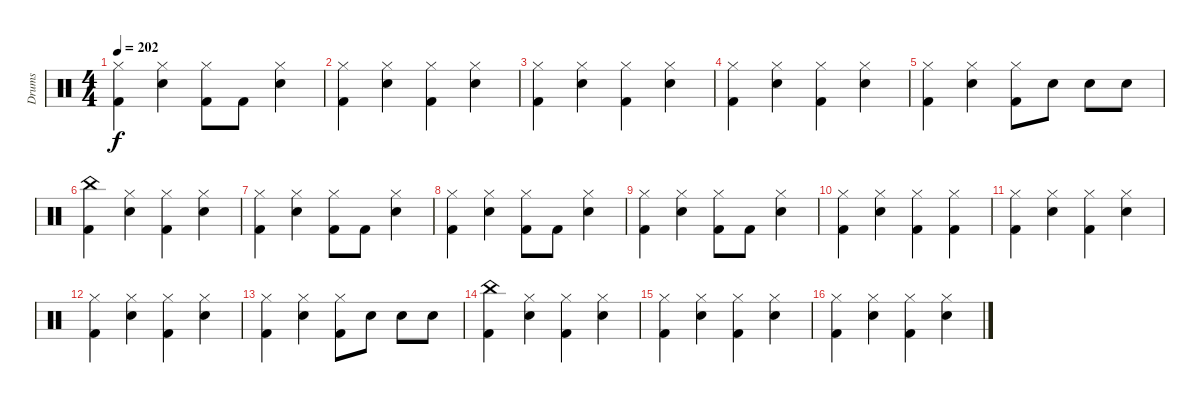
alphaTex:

\track ("Drums" "Drums") {instrument percussion}
\staff {score}
\articulation defaults
\ts (4 4)
\tempo 202
\clef neutral
\ks c
("Hi-Hat (closed)" "Kick (hit) 2").4{dy f} ("Hi-Hat (closed)" "Snare (hit) 2").4 ("Hi-Hat (closed)" "Kick (hit) 2").8 "Kick (hit) 2".8 ("Hi-Hat (closed)" "Snare (hit) 2").4 |
("Hi-Hat (closed)" "Kick (hit) 2").4 ("Hi-Hat (closed)" "Snare (hit) 2").4 ("Hi-Hat (closed)" "Kick (hit) 2").4 ("Hi-Hat (closed)" "Snare (hit) 2").4 |
("Hi-Hat (closed)" "Kick (hit) 2").4 ("Hi-Hat (closed)" "Snare (hit) 2").4 ("Hi-Hat (closed)" "Kick (hit) 2").4 ("Hi-Hat (closed)" "Snare (hit) 2").4 |
("Hi-Hat (closed)" "Kick (hit) 2").4 ("Hi-Hat (closed)" "Snare (hit) 2").4 ("Hi-Hat (closed)" "Kick (hit) 2").4 ("Hi-Hat (closed)" "Snare (hit) 2").4 |
("Hi-Hat (closed)" "Kick (hit) 2").4 ("Hi-Hat (closed)" "Snare (hit) 2").4 ("Hi-Hat (closed)" "Kick (hit) 2").8 "Snare (hit) 2".8 "Snare (hit) 2".8 "Snare (hit) 2".8 |
("China (hit)" "Kick (hit) 2").4 ("Hi-Hat (closed)" "Snare (hit) 2").4 ("Hi-Hat (closed)" "Kick (hit) 2").4 ("Hi-Hat (closed)" "Snare (hit) 2").4 |
("Hi-Hat (closed)" "Kick (hit) 2").4 ("Hi-Hat (closed)" "Snare (hit) 2").4 ("Hi-Hat (closed)" "Kick (hit) 2").8 "Kick (hit) 2".8 ("Hi-Hat (closed)" "Snare (hit) 2").4 |
("Hi-Hat (closed)" "Kick (hit) 2").4 ("Hi-Hat (closed)" "Snare (hit) 2").4 ("Hi-Hat (closed)" "Kick (hit) 2").8 "Kick (hit) 2".8 ("Hi-Hat (closed)" "Snare (hit) 2").4 |
("Hi-Hat (closed)" "Kick (hit) 2").4 ("Hi-Hat (closed)" "Snare (hit) 2").4 ("Hi-Hat (closed)" "Kick (hit) 2").8 "Kick (hit) 2".8 ("Hi-Hat (closed)" "Snare (hit) 2").4 |
("Hi-Hat (closed)" "Kick (hit) 2").4 ("Hi-Hat (closed)" "Snare (hit) 2").4 ("Hi-Hat (closed)" "Kick (hit) 2").4 ("Hi-Hat (closed)" "Kick (hit) 2").4 |
("Hi-Hat (closed)" "Kick (hit) 2").4 ("Hi-Hat (closed)" "Snare (hit) 2").4 ("Hi-Hat (closed)" "Kick (hit) 2").4 ("Hi-Hat (closed)" "Snare (hit) 2").4 |
("Hi-Hat (closed)" "Kick (hit) 2").4 ("Hi-Hat (closed)" "Snare (hit) 2").4 ("Hi-Hat (closed)" "Kick (hit) 2").4 ("Hi-Hat (closed)" "Snare (hit) 2").4 |
("Hi-Hat (closed)" "Kick (hit) 2").4 ("Hi-Hat (closed)" "Snare (hit) 2").4 ("Hi-Hat (closed)" "Kick (hit) 2").8 "Snare (hit) 2".8 "Snare (hit) 2".8 "Snare (hit) 2".8 |
("China (hit)" "Kick (hit) 2").4 ("Hi-Hat (closed)" "Snare (hit) 2").4 ("Hi-Hat (closed)" "Kick (hit) 2").4 ("Hi-Hat (closed)" "Snare (hit) 2").4 |
("Hi-Hat (closed)" "Kick (hit) 2").4 ("Hi-Hat (closed)" "Snare (hit) 2").4 ("Hi-Hat (closed)" "Kick (hit) 2").4 ("Hi-Hat (closed)" "Snare (hit) 2").4 |
("Hi-Hat (closed)" "Kick (hit) 2").4 ("Hi-Hat (closed)" "Snare (hit) 2").4 ("Hi-Hat (closed)" "Kick (hit) 2").4 ("Hi-Hat (closed)" "Snare (hit) 2").4
